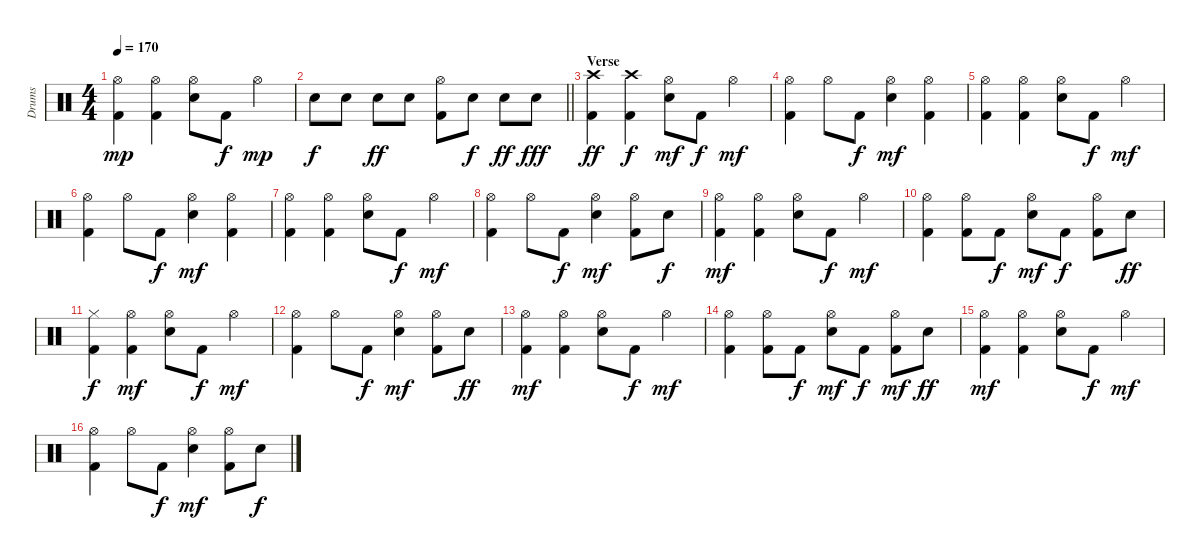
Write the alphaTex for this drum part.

\track ("Drums" "Drums") {instrument percussion}
\staff {score}
\articulation defaults
\ts (4 4)
\tempo 170
\clef neutral
\ks c
("Hi-Hat (open)" "Kick (hit) 2").4{dy mp} ("Hi-Hat (open)" "Kick (hit) 2").4 ("Hi-Hat (open)" "Snare (hit) 2").8 "Kick (hit) 2".8{dy f} "Hi-Hat (open)".4{dy mp} |
\barLineRight lightlight "Snare (hit) 2".8{dy f} "Snare (hit) 2".8 "Snare (hit) 2".8{dy ff} "Snare (hit) 2".8
("Hi-Hat (open)" "Kick (hit) 2").8 "Snare (hit) 2".8{dy f} "Snare (hit) 2".8{dy ff} "Snare (hit) 2".8{dy fff} |
\section ("" "Verse")
("Crash high (hit)" "Kick (hit) 2").4{dy ff} ("Crash high (hit)" "Kick (hit) 2").4{dy f} ("Hi-Hat (open)" "Snare (hit) 2").8{dy mf} "Kick (hit) 2".8{dy f} "Hi-Hat (open)".4{dy mf} |
("Hi-Hat (open)" "Kick (hit) 2").4 "Hi-Hat (open)".8 "Kick (hit) 2".8{dy f} ("Hi-Hat (open)" "Snare (hit) 2").4{dy mf} ("Hi-Hat (open)" "Kick (hit) 2").4 |
("Hi-Hat (open)" "Kick (hit) 2").4 ("Hi-Hat (open)" "Kick (hit) 2").4 ("Hi-Hat (open)" "Snare (hit) 2").8 "Kick (hit) 2".8{dy f} "Hi-Hat (open)".4{dy mf} |
("Hi-Hat (open)" "Kick (hit) 2").4 "Hi-Hat (open)".8 "Kick (hit) 2".8{dy f} ("Hi-Hat (open)" "Snare (hit) 2").4{dy mf} ("Hi-Hat (open)" "Kick (hit) 2").4 |
("Hi-Hat (open)" "Kick (hit) 2").4 ("Hi-Hat (open)" "Kick (hit) 2").4 ("Hi-Hat (open)" "Snare (hit) 2").8 "Kick (hit) 2".8{dy f} "Hi-Hat (open)".4{dy mf} |
("Hi-Hat (open)" "Kick (hit) 2").4 "Hi-Hat (open)".8 "Kick (hit) 2".8{dy f} ("Hi-Hat (open)" "Snare (hit) 2").4{dy mf} ("Hi-Hat (open)" "Kick (hit) 2").8 "Snare (hit) 2".8{dy f} |
("Hi-Hat (open)" "Kick (hit) 2").4{dy mf} ("Hi-Hat (open)" "Kick (hit) 2").4 ("Hi-Hat (open)" "Snare (hit) 2").8 "Kick (hit) 2".8{dy f} "Hi-Hat (open)".4{dy mf} |
("Hi-Hat (open)" "Kick (hit) 2").4 ("Hi-Hat (open)" "Kick (hit) 2").8 "Kick (hit) 2".8{dy f} ("Hi-Hat (open)" "Snare (hit) 2").8{dy mf} "Kick (hit) 2".8{dy f} ("Hi-Hat (open)" "Kick (hit) 2").8 "Snare (hit) 2".8{dy ff} |
("Hi-Hat (closed)" "Kick (hit) 2").4{dy f} ("Hi-Hat (open)" "Kick (hit) 2").4{dy mf} ("Hi-Hat (open)" "Snare (hit) 2").8 "Kick (hit) 2".8{dy f} "Hi-Hat (open)".4{dy mf} |
("Hi-Hat (open)" "Kick (hit) 2").4 "Hi-Hat (open)".8 "Kick (hit) 2".8{dy f} ("Hi-Hat (open)" "Snare (hit) 2").4{dy mf} ("Hi-Hat (open)" "Kick (hit) 2").8 "Snare (hit) 2".8{dy ff} |
("Hi-Hat (open)" "Kick (hit) 2").4{dy mf} ("Hi-Hat (open)" "Kick (hit) 2").4 ("Hi-Hat (open)" "Snare (hit) 2").8 "Kick (hit) 2".8{dy f} "Hi-Hat (open)".4{dy mf} |
("Hi-Hat (open)" "Kick (hit) 2").4 ("Hi-Hat (open)" "Kick (hit) 2").8 "Kick (hit) 2".8{dy f} ("Hi-Hat (open)" "Snare (hit) 2").8{dy mf} "Kick (hit) 2".8{dy f} ("Hi-Hat (open)" "Kick (hit) 2").8{dy mf} "Snare (hit) 2".8{dy ff} |
("Hi-Hat (open)" "Kick (hit) 2").4{dy mf} ("Hi-Hat (open)" "Kick (hit) 2").4 ("Hi-Hat (open)" "Snare (hit) 2").8 "Kick (hit) 2".8{dy f} "Hi-Hat (open)".4{dy mf} |
("Hi-Hat (open)" "Kick (hit) 2").4 "Hi-Hat (open)".8 "Kick (hit) 2".8{dy f} ("Hi-Hat (open)" "Snare (hit) 2").4{dy mf} ("Hi-Hat (open)" "Kick (hit) 2").8 "Snare (hit) 2".8{dy f}
